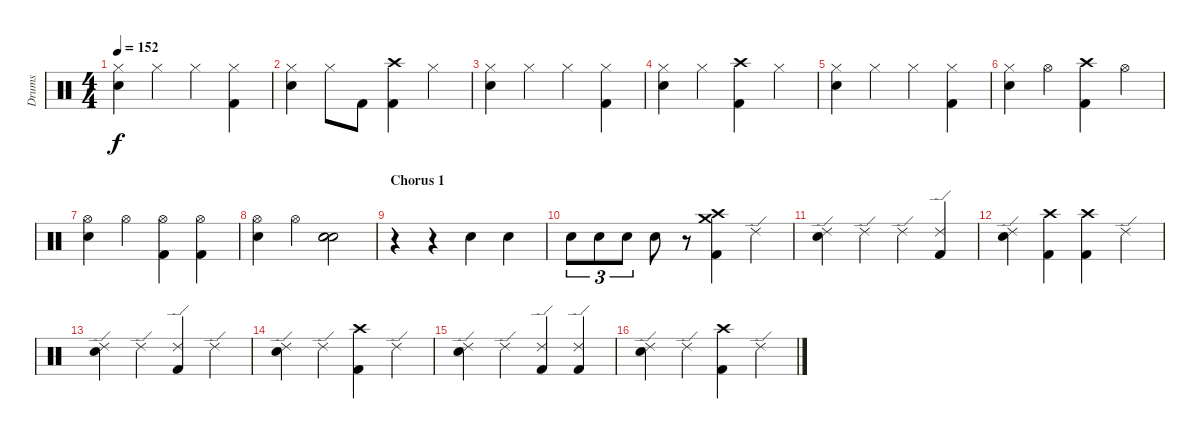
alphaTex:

\track ("Drums" "Drums") {instrument percussion}
\staff {score}
\articulation defaults
\ts (4 4)
\tempo 152
\clef neutral
\ks c
("Electric Snare (hit)" "Hi-Hat (closed)").4{dy f} "Hi-Hat (closed)".4 "Hi-Hat (closed)".4 ("Kick (hit) 2" "Hi-Hat (closed)").4 |
("Electric Snare (hit)" "Hi-Hat (closed)").4 "Hi-Hat (closed)".8 "Kick (hit) 2".8 ("Kick (hit) 2" "Crash high (hit)").4 "Hi-Hat (closed)".4 |
("Electric Snare (hit)" "Hi-Hat (closed)").4 "Hi-Hat (closed)".4 "Hi-Hat (closed)".4 ("Kick (hit) 2" "Hi-Hat (closed)").4 |
("Electric Snare (hit)" "Hi-Hat (closed)").4 "Hi-Hat (closed)".4 ("Kick (hit) 2" "Crash high (hit)").4 "Hi-Hat (closed)".4 |
("Electric Snare (hit)" "Hi-Hat (closed)").4 "Hi-Hat (closed)".4 "Hi-Hat (closed)".4 ("Kick (hit) 2" "Hi-Hat (closed)").4 |
("Electric Snare (hit)" "Hi-Hat (closed)").4 "Hi-Hat (open)".4 ("Kick (hit) 2" "Crash high (hit)").4 "Hi-Hat (open)".4 |
("Electric Snare (hit)" "Hi-Hat (open)").4 "Hi-Hat (open)".4 ("Kick (hit) 2" "Hi-Hat (open)").4 ("Kick (hit) 2" "Hi-Hat (open)").4 |
("Electric Snare (hit)" "Hi-Hat (open)").4 "Hi-Hat (open)".4 ("Electric Snare (hit)" "Electric Snare (hit)" "Electric Snare (hit)").2 |
\section ("" "Chorus 1")
r.4 r.4 "Electric Snare (hit)".4 "Electric Snare (hit)".4 |
"Electric Snare (hit)".8{tu (3 2)} "Electric Snare (hit)".8{tu (3 2)} "Electric Snare (hit)".8{tu (3 2)} "Electric Snare (hit)".8 r.8 ("Kick (hit) 2" "Crash high (hit)" "Crash medium (hit)").4 "Ride (edge) 2".4 |
("Electric Snare (hit)" "Ride (edge) 2").4 "Ride (edge) 2".4 "Ride (edge) 2".4 ("Kick (hit) 2" "Ride (edge) 2").4 |
("Electric Snare (hit)" "Ride (edge) 2").4 ("Kick (hit) 2" "Crash high (hit)").4 ("Kick (hit) 2" "Crash high (hit)").4 "Ride (edge) 2".4 |
("Electric Snare (hit)" "Ride (edge) 2").4 "Ride (edge) 2".4 ("Kick (hit) 2" "Ride (edge) 2").4 "Ride (edge) 2".4 |
("Electric Snare (hit)" "Ride (edge) 2").4 "Ride (edge) 2".4 ("Kick (hit) 2" "Crash high (hit)").4 "Ride (edge) 2".4 |
("Electric Snare (hit)" "Ride (edge) 2").4 "Ride (edge) 2".4 ("Kick (hit) 2" "Ride (edge) 2").4 ("Kick (hit) 2" "Ride (edge) 2").4 |
("Electric Snare (hit)" "Ride (edge) 2").4 "Ride (edge) 2".4 ("Kick (hit) 2" "Crash high (hit)").4 "Ride (edge) 2".4
